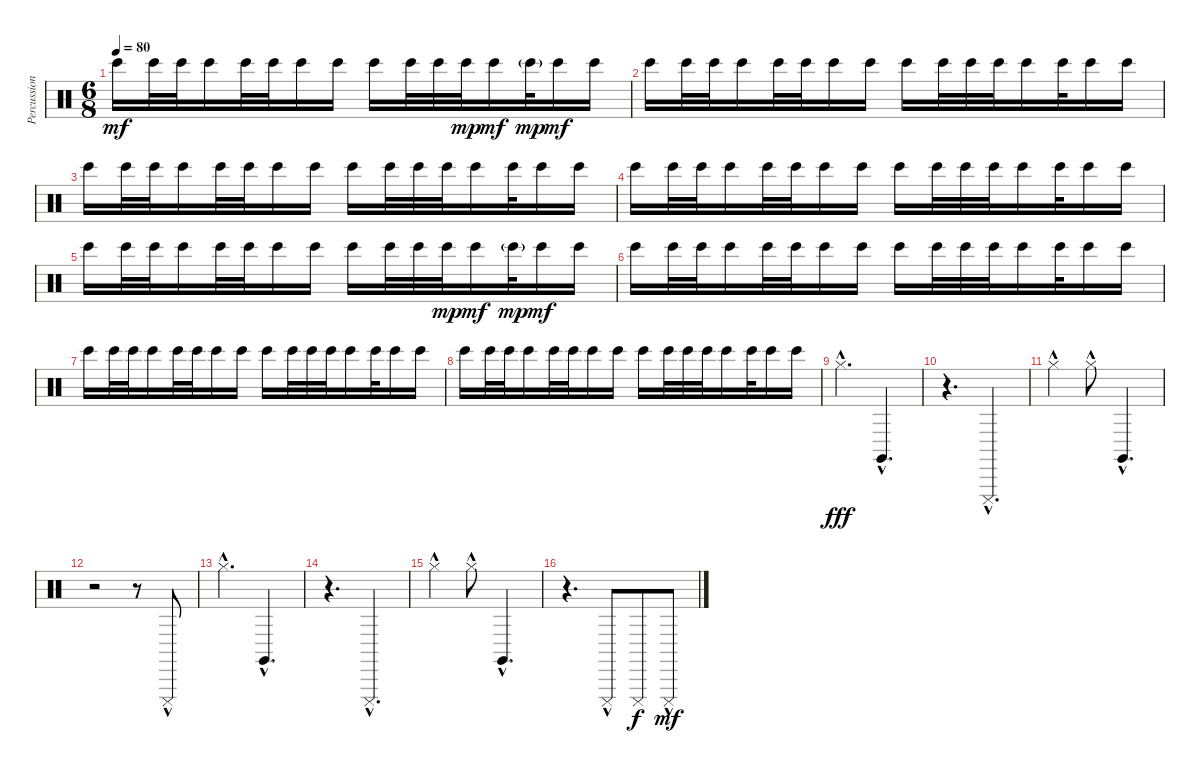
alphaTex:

\track ("Percussion" "Percussion") {instrument percussion}
\staff {score}
\articulation defaults
\ts (6 8)
\tempo 80
\clef neutral
\ks c "Bongo High (hit)".16{dy mf} "Bongo High (hit)".32 "Bongo High (hit)".32 "Bongo High (hit)".16 "Bongo High (hit)".32 "Bongo High (hit)".32 "Bongo High (hit)".16 "Bongo High (hit)".16 "Bongo High (hit)".16 "Bongo High (hit)".32 "Bongo High (hit)".32 "Bongo High (hit)".32{dy mp} "Bongo High (hit)".16{dy mf} "Bongo High (hit)"{g}.32{dy mp} "Bongo High (hit)".16{dy mf} "Bongo High (hit)".16
|
"Bongo High (hit)".16 "Bongo High (hit)".32 "Bongo High (hit)".32 "Bongo High (hit)".16 "Bongo High (hit)".32 "Bongo High (hit)".32 "Bongo High (hit)".16 "Bongo High (hit)".16 "Bongo High (hit)".16 "Bongo High (hit)".32 "Bongo High (hit)".32 "Bongo High (hit)".32 "Bongo High (hit)".16 "Bongo High (hit)".32 "Bongo High (hit)".16 "Bongo High (hit)".16 |
"Bongo High (hit)".16 "Bongo High (hit)".32 "Bongo High (hit)".32 "Bongo High (hit)".16 "Bongo High (hit)".32 "Bongo High (hit)".32 "Bongo High (hit)".16 "Bongo High (hit)".16 "Bongo High (hit)".16 "Bongo High (hit)".32 "Bongo High (hit)".32 "Bongo High (hit)".32 "Bongo High (hit)".16 "Bongo High (hit)".32 "Bongo High (hit)".16 "Bongo High (hit)".16 |
"Bongo High (hit)".16 "Bongo High (hit)".32 "Bongo High (hit)".32 "Bongo High (hit)".16 "Bongo High (hit)".32 "Bongo High (hit)".32 "Bongo High (hit)".16 "Bongo High (hit)".16 "Bongo High (hit)".16 "Bongo High (hit)".32 "Bongo High (hit)".32 "Bongo High (hit)".32 "Bongo High (hit)".16 "Bongo High (hit)".32 "Bongo High (hit)".16 "Bongo High (hit)".16 |
"Bongo High (hit)".16 "Bongo High (hit)".32 "Bongo High (hit)".32 "Bongo High (hit)".16 "Bongo High (hit)".32 "Bongo High (hit)".32 "Bongo High (hit)".16 "Bongo High (hit)".16 "Bongo High (hit)".16 "Bongo High (hit)".32 "Bongo High (hit)".32 "Bongo High (hit)".32{dy mp} "Bongo High (hit)".16{dy mf} "Bongo High (hit)"{g}.32{dy mp} "Bongo High (hit)".16{dy mf} "Bongo High (hit)".16 |
"Bongo High (hit)".16 "Bongo High (hit)".32 "Bongo High (hit)".32 "Bongo High (hit)".16 "Bongo High (hit)".32 "Bongo High (hit)".32 "Bongo High (hit)".16 "Bongo High (hit)".16 "Bongo High (hit)".16 "Bongo High (hit)".32 "Bongo High (hit)".32 "Bongo High (hit)".32 "Bongo High (hit)".16 "Bongo High (hit)".32 "Bongo High (hit)".16 "Bongo High (hit)".16 |
"Bongo High (hit)".16 "Bongo High (hit)".32 "Bongo High (hit)".32 "Bongo High (hit)".16 "Bongo High (hit)".32 "Bongo High (hit)".32 "Bongo High (hit)".16 "Bongo High (hit)".16 "Bongo High (hit)".16 "Bongo High (hit)".32 "Bongo High (hit)".32 "Bongo High (hit)".32 "Bongo High (hit)".16 "Bongo High (hit)".32 "Bongo High (hit)".16 "Bongo High (hit)".16 |
"Bongo High (hit)".16 "Bongo High (hit)".32 "Bongo High (hit)".32 "Bongo High (hit)".16 "Bongo High (hit)".32 "Bongo High (hit)".32 "Bongo High (hit)".16 "Bongo High (hit)".16 "Bongo High (hit)".16 "Bongo High (hit)".32 "Bongo High (hit)".32 "Bongo High (hit)".32 "Bongo High (hit)".16 "Bongo High (hit)".32 "Bongo High (hit)".16 "Bongo High (hit)".16 |
"Hi-Hat (closed)"{hac}.4{d dy fff} "Claves (hit)"{hac}.4{d} |
r.4{d} "Cuica (mute)"{hac}.4{d} |
"Hi-Hat (closed)"{hac}.4 "Hi-Hat (closed)"{hac}.8 "Claves (hit)"{hac}.4{d} |
r.2 r.8 "Cuica (mute)"{hac}.8 |
"Hi-Hat (closed)"{hac}.4{d} "Claves (hit)"{hac}.4{d} |
r.4{d} "Cuica (mute)"{hac}.4{d} |
"Hi-Hat (closed)"{hac}.4 "Hi-Hat (closed)"{hac}.8 "Claves (hit)"{hac}.4{d} |
r.4{d} "Cuica (mute)"{hac}.8 "Cuica (mute)".8{dy f} "Cuica (mute)"{hac}.8{dy mf}
